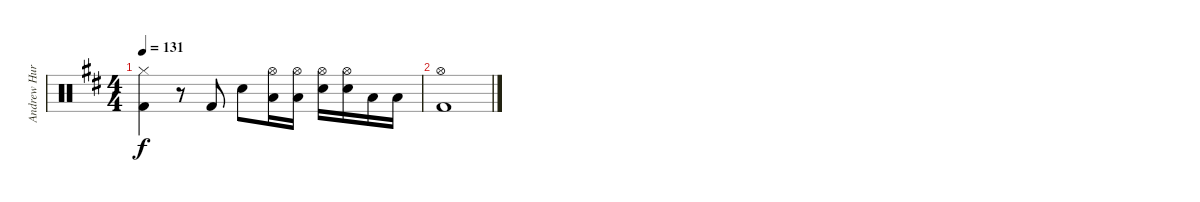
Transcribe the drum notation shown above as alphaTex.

\track ("Andrew Hurley" "Andrew Hur") {instrument percussion}
\staff {score}
\articulation defaults
\ts (4 4)
\tempo 131
\clef neutral
\ks d
("Hi-Hat (closed)" "Kick (hit) 2").4{dy f} r.8 "Kick (hit) 2".8 "Electric Snare (hit)".8 ("Hi-Hat (open)" "Low Floor Tom (hit)").16 ("Hi-Hat (open)" "Low Floor Tom (hit)").16 ("Hi-Hat (open)" "Electric Snare (hit)").16 ("Hi-Hat (open)" "Electric Snare (hit)").16 "Low Floor Tom (hit)".16 "Low Floor Tom (hit)".16 |
("Hi-Hat (open)" "Kick (hit) 2").1
